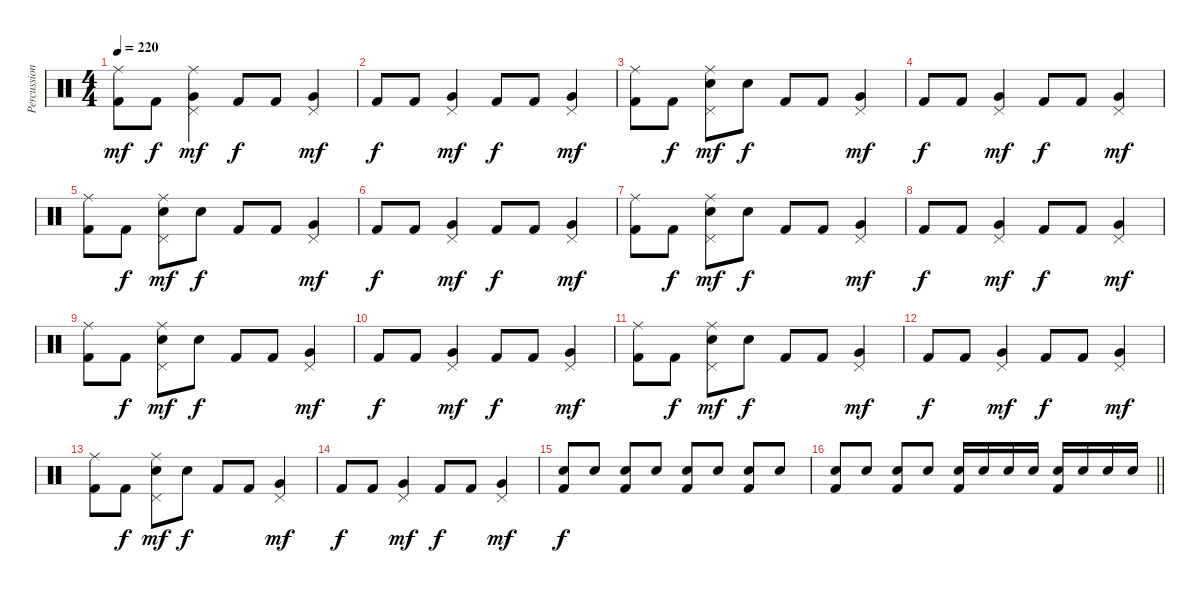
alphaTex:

\track ("Percussion" "Percussion") {instrument percussion}
\staff {score}
\articulation defaults
\ts (4 4)
\tempo 220
\clef neutral
\ks c
("Ride (middle)" "Kick (hit) 2").8{dy mf} "Kick (hit) 2".8{dy f} ("Ride (middle)" "Pedal Hi-Hat (hit)" "Very Low Tom (hit)").4{dy mf} "Kick (hit) 2".8{dy f} "Kick (hit) 2".8 ("Pedal Hi-Hat (hit)" "Very Low Tom (hit)").4{dy mf} |
"Kick (hit) 2".8{dy f} "Kick (hit) 2".8 ("Pedal Hi-Hat (hit)" "Very Low Tom (hit)").4{dy mf} "Kick (hit) 2".8{dy f} "Kick (hit) 2".8 ("Pedal Hi-Hat (hit)" "Very Low Tom (hit)").4{dy mf} |
("Ride (middle)" "Kick (hit) 2").8 "Kick (hit) 2".8{dy f} ("Ride (middle)" "Pedal Hi-Hat (hit)" "Electric Snare (hit)").8{dy mf} "Electric Snare (hit)".8{dy f} "Kick (hit) 2".8 "Kick (hit) 2".8 ("Pedal Hi-Hat (hit)" "Very Low Tom (hit)").4{dy mf} |
"Kick (hit) 2".8{dy f} "Kick (hit) 2".8 ("Pedal Hi-Hat (hit)" "Very Low Tom (hit)").4{dy mf} "Kick (hit) 2".8{dy f} "Kick (hit) 2".8 ("Pedal Hi-Hat (hit)" "Very Low Tom (hit)").4{dy mf} |
("Ride (middle)" "Kick (hit) 2").8 "Kick (hit) 2".8{dy f} ("Ride (middle)" "Pedal Hi-Hat (hit)" "Electric Snare (hit)").8{dy mf} "Electric Snare (hit)".8{dy f} "Kick (hit) 2".8 "Kick (hit) 2".8 ("Pedal Hi-Hat (hit)" "Very Low Tom (hit)").4{dy mf} |
"Kick (hit) 2".8{dy f} "Kick (hit) 2".8 ("Pedal Hi-Hat (hit)" "Very Low Tom (hit)").4{dy mf} "Kick (hit) 2".8{dy f} "Kick (hit) 2".8 ("Pedal Hi-Hat (hit)" "Very Low Tom (hit)").4{dy mf} |
("Ride (middle)" "Kick (hit) 2").8 "Kick (hit) 2".8{dy f} ("Ride (middle)" "Pedal Hi-Hat (hit)" "Electric Snare (hit)").8{dy mf} "Electric Snare (hit)".8{dy f} "Kick (hit) 2".8 "Kick (hit) 2".8 ("Pedal Hi-Hat (hit)" "Very Low Tom (hit)").4{dy mf} |
"Kick (hit) 2".8{dy f} "Kick (hit) 2".8 ("Pedal Hi-Hat (hit)" "Very Low Tom (hit)").4{dy mf} "Kick (hit) 2".8{dy f} "Kick (hit) 2".8 ("Pedal Hi-Hat (hit)" "Very Low Tom (hit)").4{dy mf} |
("Ride (middle)" "Kick (hit) 2").8 "Kick (hit) 2".8{dy f} ("Ride (middle)" "Pedal Hi-Hat (hit)" "Electric Snare (hit)").8{dy mf} "Electric Snare (hit)".8{dy f} "Kick (hit) 2".8 "Kick (hit) 2".8 ("Pedal Hi-Hat (hit)" "Very Low Tom (hit)").4{dy mf} |
"Kick (hit) 2".8{dy f} "Kick (hit) 2".8 ("Pedal Hi-Hat (hit)" "Very Low Tom (hit)").4{dy mf} "Kick (hit) 2".8{dy f} "Kick (hit) 2".8 ("Pedal Hi-Hat (hit)" "Very Low Tom (hit)").4{dy mf} |
("Ride (middle)" "Kick (hit) 2").8 "Kick (hit) 2".8{dy f} ("Ride (middle)" "Pedal Hi-Hat (hit)" "Electric Snare (hit)").8{dy mf} "Electric Snare (hit)".8{dy f} "Kick (hit) 2".8 "Kick (hit) 2".8 ("Pedal Hi-Hat (hit)" "Very Low Tom (hit)").4{dy mf} |
"Kick (hit) 2".8{dy f} "Kick (hit) 2".8 ("Pedal Hi-Hat (hit)" "Very Low Tom (hit)").4{dy mf} "Kick (hit) 2".8{dy f} "Kick (hit) 2".8 ("Pedal Hi-Hat (hit)" "Very Low Tom (hit)").4{dy mf} |
("Ride (middle)" "Kick (hit) 2").8 "Kick (hit) 2".8{dy f} ("Ride (middle)" "Pedal Hi-Hat (hit)" "Electric Snare (hit)").8{dy mf} "Electric Snare (hit)".8{dy f} "Kick (hit) 2".8 "Kick (hit) 2".8 ("Pedal Hi-Hat (hit)" "Very Low Tom (hit)").4{dy mf} |
"Kick (hit) 2".8{dy f} "Kick (hit) 2".8 ("Pedal Hi-Hat (hit)" "Very Low Tom (hit)").4{dy mf} "Kick (hit) 2".8{dy f} "Kick (hit) 2".8 ("Pedal Hi-Hat (hit)" "Very Low Tom (hit)").4{dy mf} |
("Electric Snare (hit)" "Kick (hit) 2").8{dy f} "Electric Snare (hit)".8 ("Electric Snare (hit)" "Kick (hit) 2").8 "Electric Snare (hit)".8 ("Electric Snare (hit)" "Kick (hit) 2").8 "Electric Snare (hit)".8 ("Electric Snare (hit)" "Kick (hit) 2").8 "Electric Snare (hit)".8 |
\barLineRight lightlight
("Electric Snare (hit)" "Kick (hit) 2").8 "Electric Snare (hit)".8 ("Electric Snare (hit)" "Kick (hit) 2").8 "Electric Snare (hit)".8 ("Electric Snare (hit)" "Kick (hit) 2").16 "Electric Snare (hit)".16 "Electric Snare (hit)".16 "Electric Snare (hit)".16 ("Electric Snare (hit)" "Kick (hit) 2").16 "Electric Snare (hit)".16 "Electric Snare (hit)".16 "Electric Snare (hit)".16
